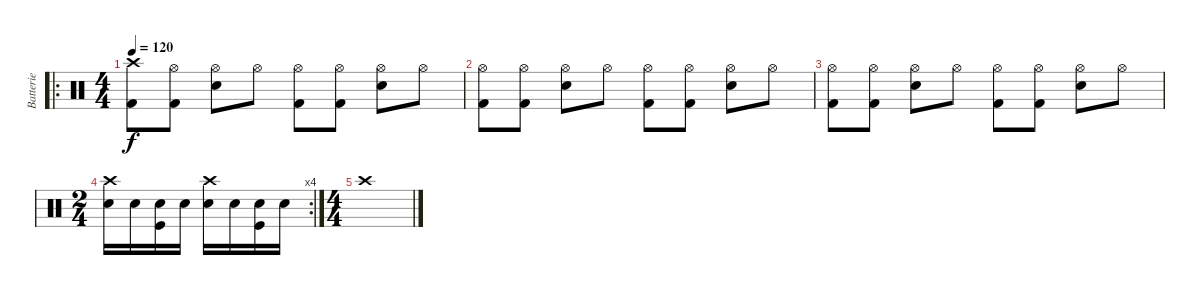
\track ("Batterie" "Batterie") {instrument percussion}
\staff {score}
\articulation defaults
\ro
\ts (4 4)
\tempo 120
\clef neutral
\ks c
("Crash high (hit)" "Kick (hit) 2").8{dy f} ("Hi-Hat (open)" "Kick (hit) 2").8 ("Hi-Hat (open)" "Electric Snare (hit)").8 "Hi-Hat (open)".8 ("Hi-Hat (open)" "Kick (hit) 2").8 ("Hi-Hat (open)" "Kick (hit) 2").8 ("Hi-Hat (open)" "Electric Snare (hit)").8 "Hi-Hat (open)".8 |
("Hi-Hat (open)" "Kick (hit) 2").8 ("Hi-Hat (open)" "Kick (hit) 2").8 ("Hi-Hat (open)" "Electric Snare (hit)").8 "Hi-Hat (open)".8 ("Hi-Hat (open)" "Kick (hit) 2").8 ("Hi-Hat (open)" "Kick (hit) 2").8 ("Hi-Hat (open)" "Electric Snare (hit)").8 "Hi-Hat (open)".8 |
("Hi-Hat (open)" "Kick (hit) 2").8 ("Hi-Hat (open)" "Kick (hit) 2").8 ("Hi-Hat (open)" "Electric Snare (hit)").8 "Hi-Hat (open)".8 ("Hi-Hat (open)" "Kick (hit) 2").8 ("Hi-Hat (open)" "Kick (hit) 2").8 ("Hi-Hat (open)" "Electric Snare (hit)").8 "Hi-Hat (open)".8 |
\rc 4
\ts (2 4)
("Crash high (hit)" "Electric Snare (hit)").16 "Electric Snare (hit)".16 ("Kick (hit)" "Electric Snare (hit)").16 "Electric Snare (hit)".16 ("Crash high (hit)" "Electric Snare (hit)").16 "Electric Snare (hit)".16 ("Kick (hit)" "Electric Snare (hit)").16 "Electric Snare (hit)".16 |
\ts (4 4)
"Crash high (hit)".1
